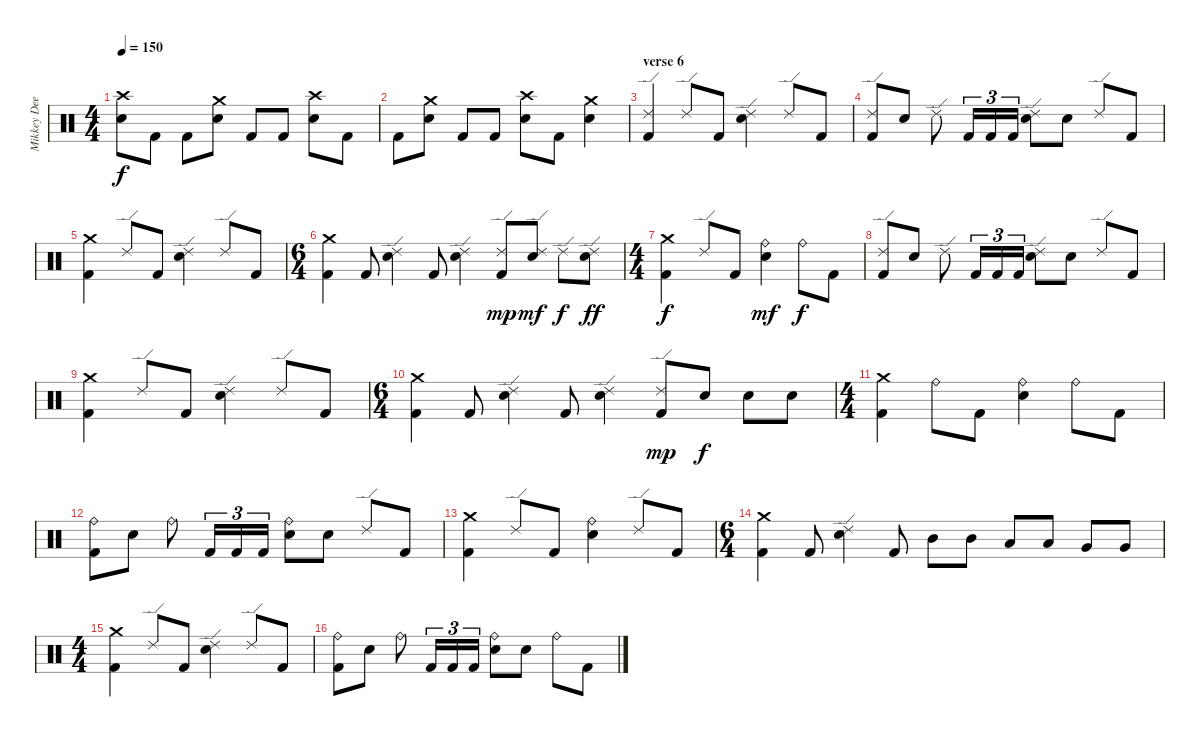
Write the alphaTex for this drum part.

\track ("Mikkey Dee" "Mikkey Dee") {instrument percussion}
\staff {score}
\articulation defaults
\ts (4 4)
\tempo 150
\clef neutral
\ks c
("Crash high (hit)" "Snare (hit) 2").8{dy f} "Kick (hit) 2".8 "Kick (hit) 2".8 ("Crash medium (hit)" "Snare (hit) 2").8 "Kick (hit) 2".8 "Kick (hit) 2".8 ("Crash high (hit)" "Snare (hit) 2").8 "Kick (hit) 2".8 |
"Kick (hit) 2".8 ("Crash medium (hit)" "Snare (hit) 2").8 "Kick (hit) 2".8 "Kick (hit) 2".8 ("Crash high (hit)" "Snare (hit) 2").8 "Kick (hit) 2".8 ("Crash medium (hit)" "Snare (hit) 2").4 |
\section ("" "verse 6")
("Kick (hit) 2" "Ride (edge) 2").4 "Ride (edge) 2".8 "Kick (hit) 2".8 ("Ride (edge) 2" "Snare (hit) 2").4 "Ride (edge) 2".8 "Kick (hit) 2".8 |
("Kick (hit) 2" "Ride (edge) 2").8 "Snare (hit) 2".8 "Ride (edge) 2".8 "Kick (hit) 2".16{tu (3 2)} "Kick (hit) 2".16{tu (3 2)} "Kick (hit) 2".16{tu (3 2)} ("Ride (edge) 2" "Snare (hit) 2").8 "Snare (hit) 2".8 "Ride (edge) 2".8 "Kick (hit) 2".8 |
("Kick (hit) 2" "Crash medium (hit)").4 "Ride (edge) 2".8 "Kick (hit) 2".8 ("Ride (edge) 2" "Snare (hit) 2").4 "Ride (edge) 2".8 "Kick (hit) 2".8 |
\ts (6 4)
("Kick (hit) 2" "Crash medium (hit)").4 "Kick (hit) 2".8 ("Ride (edge) 2" "Snare (hit) 2").4 "Kick (hit) 2".8 ("Ride (edge) 2" "Snare (hit) 2").4 ("Kick (hit) 2" "Ride (edge) 2").8{dy mp} ("Ride (edge) 2" "Snare (hit) 2").8{dy mf} "Ride (edge) 2".8{dy f} ("Ride (edge) 2" "Snare (hit) 2").8{dy ff} |
\ts (4 4)
("Kick (hit) 2" "Crash medium (hit)").4{dy f} "Ride (edge) 2".8 "Kick (hit) 2".8 ("Ride (bell)" "Snare (hit) 2").4{dy mf} "Ride (bell)".8{dy f} "Kick (hit) 2".8 |
("Kick (hit) 2" "Ride (edge) 2").8 "Snare (hit) 2".8 "Ride (edge) 2".8 "Kick (hit) 2".16{tu (3 2)} "Kick (hit) 2".16{tu (3 2)} "Kick (hit) 2".16{tu (3 2)} ("Ride (edge) 2" "Snare (hit) 2").8 "Snare (hit) 2".8 "Ride (edge) 2".8 "Kick (hit) 2".8 |
("Kick (hit) 2" "Crash medium (hit)").4 "Ride (edge) 2".8 "Kick (hit) 2".8 ("Ride (edge) 2" "Snare (hit) 2").4 "Ride (edge) 2".8 "Kick (hit) 2".8 |
\ts (6 4)
("Kick (hit) 2" "Crash medium (hit)").4 "Kick (hit) 2".8 ("Ride (edge) 2" "Snare (hit) 2").4 "Kick (hit) 2".8 ("Ride (edge) 2" "Snare (hit) 2").4 ("Kick (hit) 2" "Ride (edge) 2").8{dy mp} "Snare (hit) 2".8{dy f} "Snare (hit) 2".8 "Snare (hit) 2".8 |
\ts (4 4)
("Kick (hit) 2" "Crash medium (hit)").4 "Ride (bell)".8 "Kick (hit) 2".8 ("Ride (bell)" "Snare (hit) 2").4 "Ride (bell)".8 "Kick (hit) 2".8 |
("Kick (hit) 2" "Ride (bell)").8 "Snare (hit) 2".8 "Ride (bell)".8 "Kick (hit) 2".16{tu (3 2)} "Kick (hit) 2".16{tu (3 2)} "Kick (hit) 2".16{tu (3 2)} ("Ride (bell)" "Snare (hit) 2").8 "Snare (hit) 2".8 "Ride (edge) 2".8 "Kick (hit) 2".8 |
("Kick (hit) 2" "Crash medium (hit)").4 "Ride (edge) 2".8 "Kick (hit) 2".8 ("Ride (bell)" "Snare (hit) 2").4 "Ride (edge) 2".8 "Kick (hit) 2".8 |
\ts (6 4)
("Kick (hit) 2" "Crash medium (hit)").4 "Kick (hit) 2".8 ("Ride (edge) 2" "Snare (hit) 2").4 "Kick (hit) 2".8 "Mid Tom (hit)".8 "Mid Tom (hit)".8 "Low Tom (hit)".8 "Low Tom (hit)".8 "Very Low Tom (hit)".8 "Very Low Tom (hit)".8 |
\ts (4 4)
("Kick (hit) 2" "Crash medium (hit)").4 "Ride (edge) 2".8 "Kick (hit) 2".8 ("Ride (edge) 2" "Snare (hit) 2").4 "Ride (edge) 2".8 "Kick (hit) 2".8 |
("Kick (hit) 2" "Ride (bell)").8 "Snare (hit) 2".8 "Ride (bell)".8 "Kick (hit) 2".16{tu (3 2)} "Kick (hit) 2".16{tu (3 2)} "Kick (hit) 2".16{tu (3 2)} ("Ride (bell)" "Snare (hit) 2").8 "Snare (hit) 2".8 "Ride (bell)".8 "Kick (hit) 2".8
